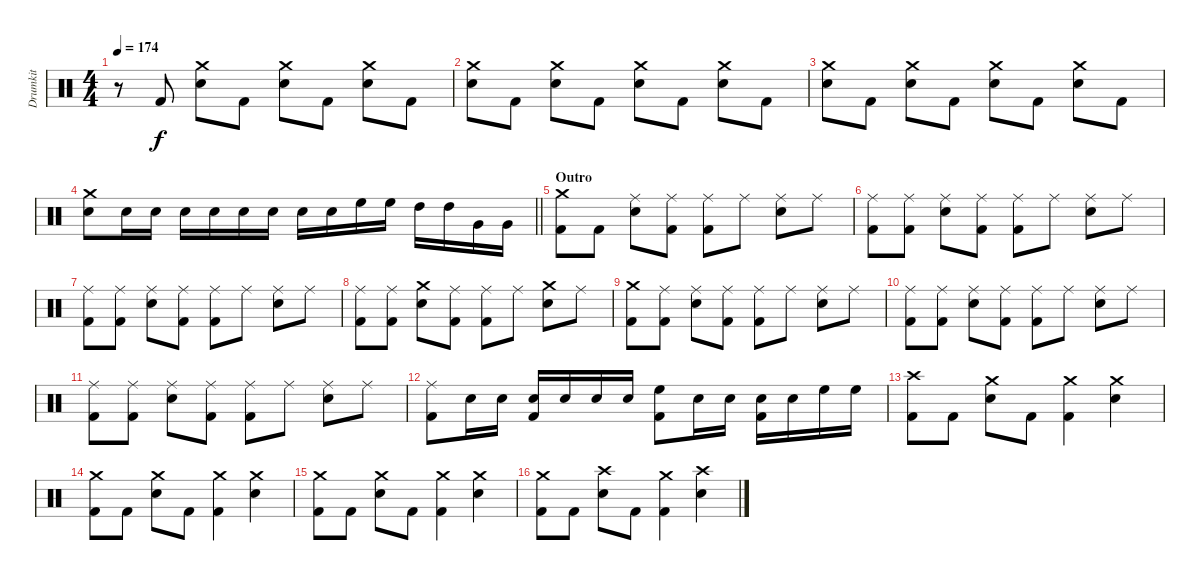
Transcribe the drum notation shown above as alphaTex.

\track ("Drumkit" "Drumkit") {instrument percussion}
\staff {score}
\articulation defaults
\ts (4 4)
\tempo 174
\clef neutral
\ks c
r.8{dy f} "Kick (hit) 2".8 ("Crash medium (hit)" "Snare (hit) 2").8 "Kick (hit) 2".8 ("Crash medium (hit)" "Snare (hit) 2").8 "Kick (hit) 2".8 ("Crash medium (hit)" "Snare (hit) 2").8 "Kick (hit) 2".8 |
("Crash medium (hit)" "Snare (hit) 2").8 "Kick (hit) 2".8 ("Crash medium (hit)" "Snare (hit) 2").8 "Kick (hit) 2".8 ("Crash medium (hit)" "Snare (hit) 2").8 "Kick (hit) 2".8 ("Crash medium (hit)" "Snare (hit) 2").8 "Kick (hit) 2".8 |
("Crash medium (hit)" "Snare (hit) 2").8 "Kick (hit) 2".8 ("Crash medium (hit)" "Snare (hit) 2").8 "Kick (hit) 2".8 ("Crash medium (hit)" "Snare (hit) 2").8 "Kick (hit) 2".8 ("Crash medium (hit)" "Snare (hit) 2").8 "Kick (hit) 2".8 |
\barLineRight lightlight
("Crash medium (hit)" "Snare (hit) 2").8 "Snare (hit) 2".16 "Snare (hit) 2".16 "Snare (hit) 2".16 "Snare (hit) 2".16 "Snare (hit) 2".16 "Snare (hit) 2".16 "Snare (hit) 2".16 "Snare (hit) 2".16 "High Floor Tom (hit)".16 "High Floor Tom (hit)".16 "High Tom (hit)".16 "High Tom (hit)".16 "Very Low Tom (hit)".16 "Very Low Tom (hit)".16 |
\section ("" "Outro")
("Crash medium (hit)" "Kick (hit) 2").8 "Kick (hit) 2".8 ("Ride (middle)" "Snare (hit) 2").8 ("Ride (middle)" "Kick (hit) 2").8 ("Ride (middle)" "Kick (hit) 2").8 "Ride (middle)".8 ("Ride (middle)" "Snare (hit) 2").8 "Ride (middle)".8 |
("Ride (middle)" "Kick (hit) 2").8 ("Ride (middle)" "Kick (hit) 2").8 ("Ride (middle)" "Snare (hit) 2").8 ("Ride (middle)" "Kick (hit) 2").8 ("Ride (middle)" "Kick (hit) 2").8 "Ride (middle)".8 ("Ride (middle)" "Snare (hit) 2").8 "Ride (middle)".8 |
("Ride (middle)" "Kick (hit) 2").8 ("Ride (middle)" "Kick (hit) 2").8 ("Ride (middle)" "Snare (hit) 2").8 ("Ride (middle)" "Kick (hit) 2").8 ("Ride (middle)" "Kick (hit) 2").8 "Ride (middle)".8 ("Ride (middle)" "Snare (hit) 2").8 "Ride (middle)".8 |
("Ride (middle)" "Kick (hit) 2").8 ("Ride (middle)" "Kick (hit) 2").8 ("Crash medium (hit)" "Snare (hit) 2").8 ("Ride (middle)" "Kick (hit) 2").8 ("Ride (middle)" "Kick (hit) 2").8 "Ride (middle)".8 ("Crash medium (hit)" "Snare (hit) 2").8 "Ride (middle)".8 |
("Crash medium (hit)" "Kick (hit) 2").8 ("Ride (middle)" "Kick (hit) 2").8 ("Ride (middle)" "Snare (hit) 2").8 ("Ride (middle)" "Kick (hit) 2").8 ("Ride (middle)" "Kick (hit) 2").8 "Ride (middle)".8 ("Ride (middle)" "Snare (hit) 2").8 "Ride (middle)".8 |
("Ride (middle)" "Kick (hit) 2").8 ("Ride (middle)" "Kick (hit) 2").8 ("Ride (middle)" "Snare (hit) 2").8 ("Ride (middle)" "Kick (hit) 2").8 ("Ride (middle)" "Kick (hit) 2").8 "Ride (middle)".8 ("Ride (middle)" "Snare (hit) 2").8 "Ride (middle)".8 |
("Ride (middle)" "Kick (hit) 2").8 ("Ride (middle)" "Kick (hit) 2").8 ("Ride (middle)" "Snare (hit) 2").8 ("Ride (middle)" "Kick (hit) 2").8 ("Ride (middle)" "Kick (hit) 2").8 "Ride (middle)".8 ("Ride (middle)" "Snare (hit) 2").8 "Ride (middle)".8 |
("Ride (middle)" "Kick (hit) 2").8 "Snare (hit) 2".16 "Snare (hit) 2".16 ("Snare (hit) 2" "Kick (hit) 2").16 "Snare (hit) 2".16 "Snare (hit) 2".16 "Snare (hit) 2".16 ("High Floor Tom (hit)" "Kick (hit) 2").8 "Snare (hit) 2".16 "Snare (hit) 2".16 ("Snare (hit) 2" "Kick (hit) 2").16 "Snare (hit) 2".16 "High Floor Tom (hit)".16 "High Floor Tom (hit)".16 |
("Crash high (hit)" "Kick (hit) 2").8 "Kick (hit) 2".8 ("Crash medium (hit)" "Snare (hit) 2").8 "Kick (hit) 2".8 ("Crash medium (hit)" "Kick (hit) 2").4 ("Crash medium (hit)" "Snare (hit) 2").4 |
("Crash medium (hit)" "Kick (hit) 2").8 "Kick (hit) 2".8 ("Crash medium (hit)" "Snare (hit) 2").8 "Kick (hit) 2".8 ("Crash medium (hit)" "Kick (hit) 2").4 ("Crash medium (hit)" "Snare (hit) 2").4 |
("Crash medium (hit)" "Kick (hit) 2").8 "Kick (hit) 2".8 ("Crash medium (hit)" "Snare (hit) 2").8 "Kick (hit) 2".8 ("Crash medium (hit)" "Kick (hit) 2").4 ("Crash medium (hit)" "Snare (hit) 2").4 |
("Crash medium (hit)" "Kick (hit) 2").8 "Kick (hit) 2".8 ("Crash high (hit)" "Snare (hit) 2").8 "Kick (hit) 2".8 ("Crash medium (hit)" "Kick (hit) 2").4 ("Crash high (hit)" "Snare (hit) 2").4
